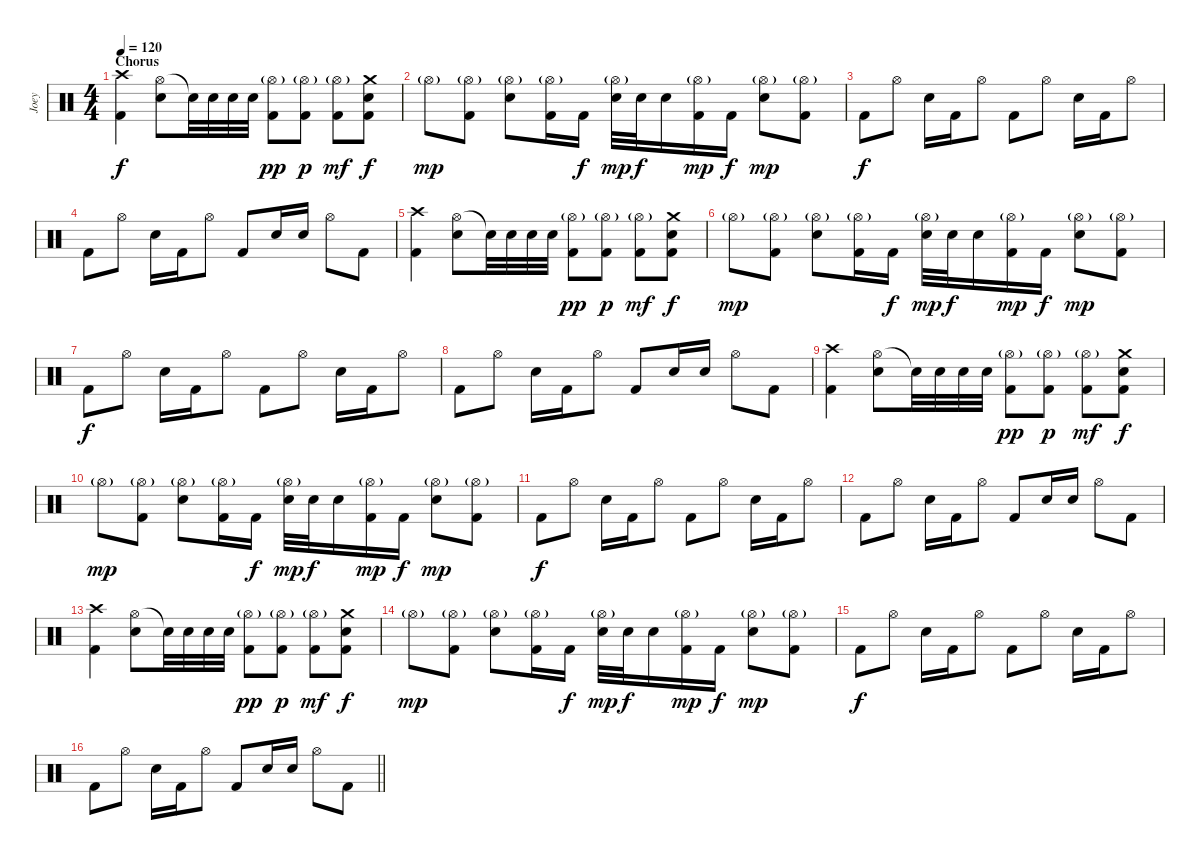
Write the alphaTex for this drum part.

\track ("Joey" "Joey") {instrument percussion}
\staff {score}
\articulation defaults
\ts (4 4)
\section ("" "Chorus")
\tempo 120
\clef neutral
\ks c
("Crash high (hit)" "Kick (hit) 2").4{dy f} ("Hi-Hat (open)" "Electric Snare (hit)").8 "Snare (hit)"{t}.32 "Electric Snare (hit)".32 "Electric Snare (hit)".32 "Electric Snare (hit)".32 ("Hi-Hat (open)"{g} "Kick (hit) 2").8{dy pp} ("Hi-Hat (open)"{g} "Kick (hit) 2").8{dy p} ("Hi-Hat (open)"{g} "Kick (hit) 2").8{dy mf} ("Crash medium (hit)" "Electric Snare (hit)" "Kick (hit) 2").8{dy f} |
"Hi-Hat (open)"{g}.8{dy mp} ("Hi-Hat (open)"{g} "Kick (hit) 2").8 ("Hi-Hat (open)"{g} "Electric Snare (hit)").8 ("Hi-Hat (open)"{g} "Kick (hit) 2").16 "Kick (hit) 2".16{dy f} ("Hi-Hat (open)"{g} "Electric Snare (hit)").32{dy mp} "Electric Snare (hit)".32{dy f} "Electric Snare (hit)".16 ("Hi-Hat (open)"{g} "Kick (hit) 2").16{dy mp} "Kick (hit) 2".16{dy f} ("Hi-Hat (open)"{g} "Electric Snare (hit)").8{dy mp} ("Hi-Hat (open)"{g} "Kick (hit) 2").8 |
"Kick (hit) 2".8{dy f} "Hi-Hat (open)".8 "Electric Snare (hit)".16 "Kick (hit) 2".16 "Hi-Hat (open)".8 "Kick (hit) 2".8 "Hi-Hat (open)".8 "Electric Snare (hit)".16 "Kick (hit) 2".16 "Hi-Hat (open)".8 |
"Kick (hit) 2".8 "Hi-Hat (open)".8 "Electric Snare (hit)".16 "Kick (hit) 2".16 "Hi-Hat (open)".8 "Kick (hit) 2".8 "Electric Snare (hit)".16 "Electric Snare (hit)".16 "Hi-Hat (open)".8 "Kick (hit) 2".8 |
("Crash high (hit)" "Kick (hit) 2").4 ("Hi-Hat (open)" "Electric Snare (hit)").8 "Snare (hit)"{t}.32 "Electric Snare (hit)".32 "Electric Snare (hit)".32 "Electric Snare (hit)".32 ("Hi-Hat (open)"{g} "Kick (hit) 2").8{dy pp} ("Hi-Hat (open)"{g} "Kick (hit) 2").8{dy p} ("Hi-Hat (open)"{g} "Kick (hit) 2").8{dy mf} ("Crash medium (hit)" "Electric Snare (hit)" "Kick (hit) 2").8{dy f} |
"Hi-Hat (open)"{g}.8{dy mp} ("Hi-Hat (open)"{g} "Kick (hit) 2").8 ("Hi-Hat (open)"{g} "Electric Snare (hit)").8 ("Hi-Hat (open)"{g} "Kick (hit) 2").16 "Kick (hit) 2".16{dy f} ("Hi-Hat (open)"{g} "Electric Snare (hit)").32{dy mp} "Electric Snare (hit)".32{dy f} "Electric Snare (hit)".16 ("Hi-Hat (open)"{g} "Kick (hit) 2").16{dy mp} "Kick (hit) 2".16{dy f} ("Hi-Hat (open)"{g} "Electric Snare (hit)").8{dy mp} ("Hi-Hat (open)"{g} "Kick (hit) 2").8 |
"Kick (hit) 2".8{dy f} "Hi-Hat (open)".8 "Electric Snare (hit)".16 "Kick (hit) 2".16 "Hi-Hat (open)".8 "Kick (hit) 2".8 "Hi-Hat (open)".8 "Electric Snare (hit)".16 "Kick (hit) 2".16 "Hi-Hat (open)".8 |
"Kick (hit) 2".8 "Hi-Hat (open)".8 "Electric Snare (hit)".16 "Kick (hit) 2".16 "Hi-Hat (open)".8 "Kick (hit) 2".8 "Electric Snare (hit)".16 "Electric Snare (hit)".16 "Hi-Hat (open)".8 "Kick (hit) 2".8 |
("Crash high (hit)" "Kick (hit) 2").4 ("Hi-Hat (open)" "Electric Snare (hit)").8 "Snare (hit)"{t}.32 "Electric Snare (hit)".32 "Electric Snare (hit)".32 "Electric Snare (hit)".32 ("Hi-Hat (open)"{g} "Kick (hit) 2").8{dy pp} ("Hi-Hat (open)"{g} "Kick (hit) 2").8{dy p} ("Hi-Hat (open)"{g} "Kick (hit) 2").8{dy mf} ("Crash medium (hit)" "Electric Snare (hit)" "Kick (hit) 2").8{dy f} |
"Hi-Hat (open)"{g}.8{dy mp} ("Hi-Hat (open)"{g} "Kick (hit) 2").8 ("Hi-Hat (open)"{g} "Electric Snare (hit)").8 ("Hi-Hat (open)"{g} "Kick (hit) 2").16 "Kick (hit) 2".16{dy f} ("Hi-Hat (open)"{g} "Electric Snare (hit)").32{dy mp} "Electric Snare (hit)".32{dy f} "Electric Snare (hit)".16 ("Hi-Hat (open)"{g} "Kick (hit) 2").16{dy mp} "Kick (hit) 2".16{dy f} ("Hi-Hat (open)"{g} "Electric Snare (hit)").8{dy mp} ("Hi-Hat (open)"{g} "Kick (hit) 2").8 |
"Kick (hit) 2".8{dy f} "Hi-Hat (open)".8 "Electric Snare (hit)".16 "Kick (hit) 2".16 "Hi-Hat (open)".8 "Kick (hit) 2".8 "Hi-Hat (open)".8 "Electric Snare (hit)".16 "Kick (hit) 2".16 "Hi-Hat (open)".8 |
"Kick (hit) 2".8 "Hi-Hat (open)".8 "Electric Snare (hit)".16 "Kick (hit) 2".16 "Hi-Hat (open)".8 "Kick (hit) 2".8 "Electric Snare (hit)".16 "Electric Snare (hit)".16 "Hi-Hat (open)".8 "Kick (hit) 2".8 |
("Crash high (hit)" "Kick (hit) 2").4 ("Hi-Hat (open)" "Electric Snare (hit)").8 "Snare (hit)"{t}.32 "Electric Snare (hit)".32 "Electric Snare (hit)".32 "Electric Snare (hit)".32 ("Hi-Hat (open)"{g} "Kick (hit) 2").8{dy pp} ("Hi-Hat (open)"{g} "Kick (hit) 2").8{dy p} ("Hi-Hat (open)"{g} "Kick (hit) 2").8{dy mf} ("Crash medium (hit)" "Electric Snare (hit)" "Kick (hit) 2").8{dy f} |
"Hi-Hat (open)"{g}.8{dy mp} ("Hi-Hat (open)"{g} "Kick (hit) 2").8 ("Hi-Hat (open)"{g} "Electric Snare (hit)").8 ("Hi-Hat (open)"{g} "Kick (hit) 2").16 "Kick (hit) 2".16{dy f} ("Hi-Hat (open)"{g} "Electric Snare (hit)").32{dy mp} "Electric Snare (hit)".32{dy f} "Electric Snare (hit)".16 ("Hi-Hat (open)"{g} "Kick (hit) 2").16{dy mp} "Kick (hit) 2".16{dy f} ("Hi-Hat (open)"{g} "Electric Snare (hit)").8{dy mp} ("Hi-Hat (open)"{g} "Kick (hit) 2").8 |
"Kick (hit) 2".8{dy f} "Hi-Hat (open)".8 "Electric Snare (hit)".16 "Kick (hit) 2".16 "Hi-Hat (open)".8 "Kick (hit) 2".8 "Hi-Hat (open)".8 "Electric Snare (hit)".16 "Kick (hit) 2".16 "Hi-Hat (open)".8 |
\barLineRight lightlight "Kick (hit) 2".8 "Hi-Hat (open)".8 "Electric Snare (hit)".16 "Kick (hit) 2".16 "Hi-Hat (open)".8 "Kick (hit) 2".8 "Electric Snare (hit)".16 "Electric Snare (hit)".16 "Hi-Hat (open)".8 "Kick (hit) 2".8
